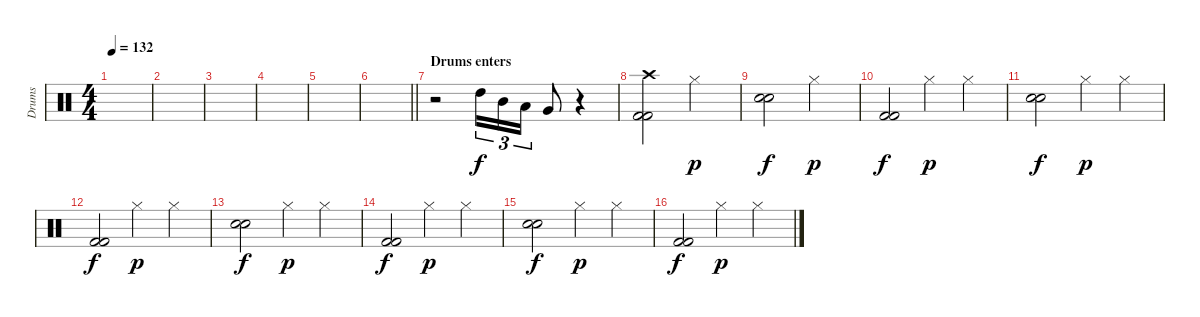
\track ("Drums" "Drums") {instrument percussion}
\staff {score}
\articulation defaults
\ts (4 4)
\tempo 132
\clef neutral
\ks c
|
|
|
|
|
\barLineRight lightlight
|
\section ("" "Drums enters")
r.2 "High Tom (hit)".16{tu (3 2)} "Mid Tom (hit)".16{tu (3 2)} "Low Tom (hit)".16{tu (3 2)} "Very Low Tom (hit)".8 r.4 |
("Crash high (hit)" "Kick (hit) 2" "Kick (hit) 2").2 "Hi-Hat (closed)".2{dy p} |
("Snare (hit) 2" "Snare (hit) 2").2{dy f} "Hi-Hat (closed)".2{dy p} |
("Kick (hit) 2" "Kick (hit) 2").2{dy f} "Hi-Hat (closed)".4{dy p} "Hi-Hat (closed)".4 |
("Snare (hit) 2" "Snare (hit) 2").2{dy f} "Hi-Hat (closed)".4{dy p} "Hi-Hat (closed)".4 |
("Kick (hit) 2" "Kick (hit) 2").2{dy f} "Hi-Hat (closed)".4{dy p} "Hi-Hat (closed)".4 |
("Snare (hit) 2" "Snare (hit) 2").2{dy f} "Hi-Hat (closed)".4{dy p} "Hi-Hat (closed)".4 |
("Kick (hit) 2" "Kick (hit) 2").2{dy f} "Hi-Hat (closed)".4{dy p} "Hi-Hat (closed)".4 |
("Snare (hit) 2" "Snare (hit) 2").2{dy f} "Hi-Hat (closed)".4{dy p} "Hi-Hat (closed)".4 |
("Kick (hit) 2" "Kick (hit) 2").2{dy f} "Hi-Hat (closed)".4{dy p} "Hi-Hat (closed)".4
